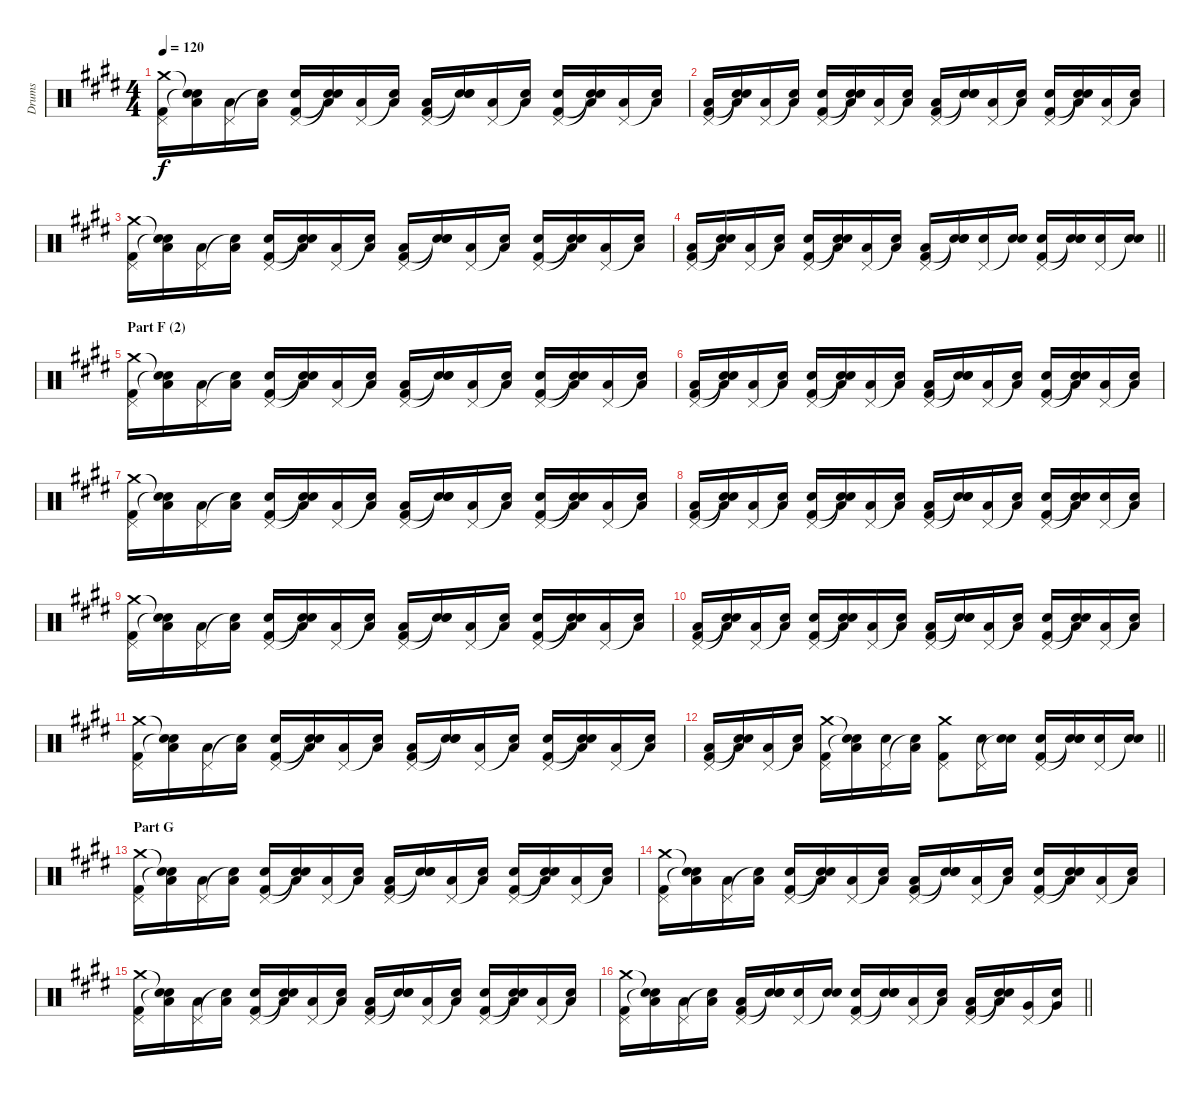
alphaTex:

\track ("Drums" "Drums") {instrument percussion}
\staff {score}
\articulation defaults
\ts (4 4)
\tempo 120
\clef neutral
\ks e
("Crash medium (hit)" "Pedal Hi-Hat (hit)" "Kick (hit) 2").16{dy f} ("Snare (hit)"{t} "Low Floor Tom (hit)" "Snare (hit)"{t}).16 ("Pedal Hi-Hat (hit)" "Low Floor Tom (hit)").16 ("Snare (hit)"{t} "Low Floor Tom (hit)").16 ("Pedal Hi-Hat (hit)" "Electric Snare (hit)" "Kick (hit) 2").16 ("Snare (hit)"{t} "Low Floor Tom (hit)" "Snare (hit)"{t}).16 ("Pedal Hi-Hat (hit)" "Low Floor Tom (hit)").16 ("Snare (hit)"{t} "Low Floor Tom (hit)").16 ("Pedal Hi-Hat (hit)" "Low Floor Tom (hit)" "Kick (hit) 2").16 ("Snare (hit)"{t} "Electric Snare (hit)" "Snare (hit)"{t}).16 ("Pedal Hi-Hat (hit)" "Low Floor Tom (hit)").16 ("Snare (hit)"{t} "Low Floor Tom (hit)").16 ("Pedal Hi-Hat (hit)" "Electric Snare (hit)" "Kick (hit) 2").16 ("Snare (hit)"{t} "Low Floor Tom (hit)" "Snare (hit)"{t}).16 ("Pedal Hi-Hat (hit)" "Low Floor Tom (hit)").16 ("Snare (hit)"{t} "Low Floor Tom (hit)").16 |
("Pedal Hi-Hat (hit)" "Low Floor Tom (hit)" "Kick (hit) 2").16 ("Snare (hit)"{t} "Low Floor Tom (hit)" "Snare (hit)"{t}).16 ("Pedal Hi-Hat (hit)" "Low Floor Tom (hit)").16 ("Snare (hit)"{t} "Low Floor Tom (hit)").16 ("Pedal Hi-Hat (hit)" "Electric Snare (hit)" "Kick (hit) 2").16 ("Snare (hit)"{t} "Low Floor Tom (hit)" "Snare (hit)"{t}).16 ("Pedal Hi-Hat (hit)" "Low Floor Tom (hit)").16 ("Snare (hit)"{t} "Low Floor Tom (hit)").16 ("Pedal Hi-Hat (hit)" "Low Floor Tom (hit)" "Kick (hit) 2").16 ("Snare (hit)"{t} "Electric Snare (hit)" "Snare (hit)"{t}).16 ("Pedal Hi-Hat (hit)" "Low Floor Tom (hit)").16 ("Snare (hit)"{t} "Low Floor Tom (hit)").16 ("Pedal Hi-Hat (hit)" "Electric Snare (hit)" "Kick (hit) 2").16 ("Snare (hit)"{t} "Low Floor Tom (hit)" "Snare (hit)"{t}).16 ("Pedal Hi-Hat (hit)" "Low Floor Tom (hit)").16 ("Snare (hit)"{t} "Low Floor Tom (hit)").16 |
("Crash medium (hit)" "Pedal Hi-Hat (hit)" "Kick (hit) 2").16 ("Snare (hit)"{t} "Low Floor Tom (hit)" "Snare (hit)"{t}).16 ("Pedal Hi-Hat (hit)" "Low Floor Tom (hit)").16 ("Snare (hit)"{t} "Low Floor Tom (hit)").16 ("Pedal Hi-Hat (hit)" "Electric Snare (hit)" "Kick (hit) 2").16 ("Snare (hit)"{t} "Low Floor Tom (hit)" "Snare (hit)"{t}).16 ("Pedal Hi-Hat (hit)" "Low Floor Tom (hit)").16 ("Snare (hit)"{t} "Low Floor Tom (hit)").16 ("Pedal Hi-Hat (hit)" "Low Floor Tom (hit)" "Kick (hit) 2").16 ("Snare (hit)"{t} "Electric Snare (hit)" "Snare (hit)"{t}).16 ("Pedal Hi-Hat (hit)" "Low Floor Tom (hit)").16 ("Snare (hit)"{t} "Low Floor Tom (hit)").16 ("Pedal Hi-Hat (hit)" "Electric Snare (hit)" "Kick (hit) 2").16 ("Snare (hit)"{t} "Low Floor Tom (hit)" "Snare (hit)"{t}).16 ("Pedal Hi-Hat (hit)" "Low Floor Tom (hit)").16 ("Snare (hit)"{t} "Low Floor Tom (hit)").16 |
\barLineRight lightlight
("Pedal Hi-Hat (hit)" "Low Floor Tom (hit)" "Kick (hit) 2").16 ("Snare (hit)"{t} "Low Floor Tom (hit)" "Snare (hit)"{t}).16 ("Pedal Hi-Hat (hit)" "Low Floor Tom (hit)").16 ("Snare (hit)"{t} "Low Floor Tom (hit)").16 ("Pedal Hi-Hat (hit)" "Electric Snare (hit)" "Kick (hit) 2").16 ("Snare (hit)"{t} "Low Floor Tom (hit)" "Snare (hit)"{t}).16 ("Pedal Hi-Hat (hit)" "Low Floor Tom (hit)").16 ("Snare (hit)"{t} "Low Floor Tom (hit)").16 ("Pedal Hi-Hat (hit)" "Low Floor Tom (hit)" "Kick (hit) 2").16 ("Snare (hit)"{t} "Electric Snare (hit)" "Snare (hit)"{t}).16 ("Pedal Hi-Hat (hit)" "Electric Snare (hit)").16 ("Snare (hit)"{t} "Electric Snare (hit)").16 ("Pedal Hi-Hat (hit)" "Electric Snare (hit)" "Kick (hit) 2").16 ("Snare (hit)"{t} "Electric Snare (hit)" "Snare (hit)"{t}).16 ("Pedal Hi-Hat (hit)" "Electric Snare (hit)").16 ("Snare (hit)"{t} "Electric Snare (hit)").16 |
\section ("" "Part F (2)")
("Crash medium (hit)" "Pedal Hi-Hat (hit)" "Kick (hit) 2").16 ("Snare (hit)"{t} "Low Floor Tom (hit)" "Snare (hit)"{t}).16 ("Pedal Hi-Hat (hit)" "Low Floor Tom (hit)").16 ("Snare (hit)"{t} "Low Floor Tom (hit)").16 ("Pedal Hi-Hat (hit)" "Electric Snare (hit)" "Kick (hit) 2").16 ("Snare (hit)"{t} "Low Floor Tom (hit)" "Snare (hit)"{t}).16 ("Pedal Hi-Hat (hit)" "Low Floor Tom (hit)").16 ("Snare (hit)"{t} "Low Floor Tom (hit)").16 ("Pedal Hi-Hat (hit)" "Low Floor Tom (hit)" "Kick (hit) 2").16 ("Snare (hit)"{t} "Electric Snare (hit)" "Snare (hit)"{t}).16 ("Pedal Hi-Hat (hit)" "Low Floor Tom (hit)").16 ("Snare (hit)"{t} "Low Floor Tom (hit)").16 ("Pedal Hi-Hat (hit)" "Electric Snare (hit)" "Kick (hit) 2").16 ("Snare (hit)"{t} "Low Floor Tom (hit)" "Snare (hit)"{t}).16 ("Pedal Hi-Hat (hit)" "Low Floor Tom (hit)").16 ("Snare (hit)"{t} "Low Floor Tom (hit)").16 |
("Pedal Hi-Hat (hit)" "Low Floor Tom (hit)" "Kick (hit) 2").16 ("Snare (hit)"{t} "Low Floor Tom (hit)" "Snare (hit)"{t}).16 ("Pedal Hi-Hat (hit)" "Low Floor Tom (hit)").16 ("Snare (hit)"{t} "Low Floor Tom (hit)").16 ("Pedal Hi-Hat (hit)" "Electric Snare (hit)" "Kick (hit) 2").16 ("Snare (hit)"{t} "Low Floor Tom (hit)" "Snare (hit)"{t}).16 ("Pedal Hi-Hat (hit)" "Low Floor Tom (hit)").16 ("Snare (hit)"{t} "Low Floor Tom (hit)").16 ("Pedal Hi-Hat (hit)" "Low Floor Tom (hit)" "Kick (hit) 2").16 ("Snare (hit)"{t} "Electric Snare (hit)" "Snare (hit)"{t}).16 ("Pedal Hi-Hat (hit)" "Low Floor Tom (hit)").16 ("Snare (hit)"{t} "Low Floor Tom (hit)").16 ("Pedal Hi-Hat (hit)" "Electric Snare (hit)" "Kick (hit) 2").16 ("Snare (hit)"{t} "Low Floor Tom (hit)" "Snare (hit)"{t}).16 ("Pedal Hi-Hat (hit)" "Low Floor Tom (hit)").16 ("Snare (hit)"{t} "Low Floor Tom (hit)").16 |
("Crash medium (hit)" "Pedal Hi-Hat (hit)" "Kick (hit) 2").16 ("Snare (hit)"{t} "Low Floor Tom (hit)" "Snare (hit)"{t}).16 ("Pedal Hi-Hat (hit)" "Low Floor Tom (hit)").16 ("Snare (hit)"{t} "Low Floor Tom (hit)").16 ("Pedal Hi-Hat (hit)" "Electric Snare (hit)" "Kick (hit) 2").16 ("Snare (hit)"{t} "Low Floor Tom (hit)" "Snare (hit)"{t}).16 ("Pedal Hi-Hat (hit)" "Low Floor Tom (hit)").16 ("Snare (hit)"{t} "Low Floor Tom (hit)").16 ("Pedal Hi-Hat (hit)" "Low Floor Tom (hit)" "Kick (hit) 2").16 ("Snare (hit)"{t} "Electric Snare (hit)" "Snare (hit)"{t}).16 ("Pedal Hi-Hat (hit)" "Low Floor Tom (hit)").16 ("Snare (hit)"{t} "Low Floor Tom (hit)").16 ("Pedal Hi-Hat (hit)" "Electric Snare (hit)" "Kick (hit) 2").16 ("Snare (hit)"{t} "Low Floor Tom (hit)" "Snare (hit)"{t}).16 ("Pedal Hi-Hat (hit)" "Low Floor Tom (hit)").16 ("Snare (hit)"{t} "Low Floor Tom (hit)").16 |
("Pedal Hi-Hat (hit)" "Low Floor Tom (hit)" "Kick (hit) 2").16 ("Snare (hit)"{t} "Low Floor Tom (hit)" "Snare (hit)"{t}).16 ("Pedal Hi-Hat (hit)" "Low Floor Tom (hit)").16 ("Snare (hit)"{t} "Low Floor Tom (hit)").16 ("Pedal Hi-Hat (hit)" "Electric Snare (hit)" "Kick (hit) 2").16 ("Snare (hit)"{t} "Low Floor Tom (hit)" "Snare (hit)"{t}).16 ("Pedal Hi-Hat (hit)" "Low Floor Tom (hit)").16 ("Snare (hit)"{t} "Low Floor Tom (hit)").16 ("Pedal Hi-Hat (hit)" "Low Floor Tom (hit)" "Kick (hit) 2").16 ("Snare (hit)"{t} "Electric Snare (hit)" "Snare (hit)"{t}).16 ("Pedal Hi-Hat (hit)" "Low Floor Tom (hit)").16 ("Snare (hit)"{t} "Low Floor Tom (hit)").16 ("Pedal Hi-Hat (hit)" "Electric Snare (hit)" "Kick (hit) 2").16 ("Snare (hit)"{t} "Low Floor Tom (hit)" "Snare (hit)"{t}).16 ("Pedal Hi-Hat (hit)" "Electric Snare (hit)").16 ("Snare (hit)"{t} "Low Floor Tom (hit)").16 |
("Crash medium (hit)" "Pedal Hi-Hat (hit)" "Kick (hit) 2").16 ("Snare (hit)"{t} "Low Floor Tom (hit)" "Snare (hit)"{t}).16 ("Pedal Hi-Hat (hit)" "Low Floor Tom (hit)").16 ("Snare (hit)"{t} "Low Floor Tom (hit)").16 ("Pedal Hi-Hat (hit)" "Electric Snare (hit)" "Kick (hit) 2").16 ("Snare (hit)"{t} "Low Floor Tom (hit)" "Snare (hit)"{t}).16 ("Pedal Hi-Hat (hit)" "Low Floor Tom (hit)").16 ("Snare (hit)"{t} "Low Floor Tom (hit)").16 ("Pedal Hi-Hat (hit)" "Low Floor Tom (hit)" "Kick (hit) 2").16 ("Snare (hit)"{t} "Electric Snare (hit)" "Snare (hit)"{t}).16 ("Pedal Hi-Hat (hit)" "Low Floor Tom (hit)").16 ("Snare (hit)"{t} "Low Floor Tom (hit)").16 ("Pedal Hi-Hat (hit)" "Electric Snare (hit)" "Kick (hit) 2").16 ("Snare (hit)"{t} "Low Floor Tom (hit)" "Snare (hit)"{t}).16 ("Pedal Hi-Hat (hit)" "Low Floor Tom (hit)").16 ("Snare (hit)"{t} "Low Floor Tom (hit)").16 |
("Pedal Hi-Hat (hit)" "Low Floor Tom (hit)" "Kick (hit) 2").16 ("Snare (hit)"{t} "Low Floor Tom (hit)" "Snare (hit)"{t}).16 ("Pedal Hi-Hat (hit)" "Low Floor Tom (hit)").16 ("Snare (hit)"{t} "Low Floor Tom (hit)").16 ("Pedal Hi-Hat (hit)" "Electric Snare (hit)" "Kick (hit) 2").16 ("Snare (hit)"{t} "Low Floor Tom (hit)" "Snare (hit)"{t}).16 ("Pedal Hi-Hat (hit)" "Low Floor Tom (hit)").16 ("Snare (hit)"{t} "Low Floor Tom (hit)").16 ("Pedal Hi-Hat (hit)" "Low Floor Tom (hit)" "Kick (hit) 2").16 ("Snare (hit)"{t} "Electric Snare (hit)" "Snare (hit)"{t}).16 ("Pedal Hi-Hat (hit)" "Low Floor Tom (hit)").16 ("Snare (hit)"{t} "Low Floor Tom (hit)").16 ("Pedal Hi-Hat (hit)" "Electric Snare (hit)" "Kick (hit) 2").16 ("Snare (hit)"{t} "Low Floor Tom (hit)" "Snare (hit)"{t}).16 ("Pedal Hi-Hat (hit)" "Low Floor Tom (hit)").16 ("Snare (hit)"{t} "Low Floor Tom (hit)").16 |
("Crash medium (hit)" "Pedal Hi-Hat (hit)" "Kick (hit) 2").16 ("Snare (hit)"{t} "Low Floor Tom (hit)" "Snare (hit)"{t}).16 ("Pedal Hi-Hat (hit)" "Low Floor Tom (hit)").16 ("Snare (hit)"{t} "Low Floor Tom (hit)").16 ("Pedal Hi-Hat (hit)" "Electric Snare (hit)" "Kick (hit) 2").16 ("Snare (hit)"{t} "Low Floor Tom (hit)" "Snare (hit)"{t}).16 ("Pedal Hi-Hat (hit)" "Low Floor Tom (hit)").16 ("Snare (hit)"{t} "Low Floor Tom (hit)").16 ("Pedal Hi-Hat (hit)" "Low Floor Tom (hit)" "Kick (hit) 2").16 ("Snare (hit)"{t} "Electric Snare (hit)" "Snare (hit)"{t}).16 ("Pedal Hi-Hat (hit)" "Low Floor Tom (hit)").16 ("Snare (hit)"{t} "Low Floor Tom (hit)").16 ("Pedal Hi-Hat (hit)" "Electric Snare (hit)" "Kick (hit) 2").16 ("Snare (hit)"{t} "Low Floor Tom (hit)" "Snare (hit)"{t}).16 ("Pedal Hi-Hat (hit)" "Low Floor Tom (hit)").16 ("Snare (hit)"{t} "Low Floor Tom (hit)").16 |
\barLineRight lightlight
("Pedal Hi-Hat (hit)" "Low Floor Tom (hit)" "Kick (hit) 2").16 ("Snare (hit)"{t} "Low Floor Tom (hit)" "Snare (hit)"{t}).16 ("Pedal Hi-Hat (hit)" "Low Floor Tom (hit)").16 ("Snare (hit)"{t} "Low Floor Tom (hit)").16 ("Crash medium (hit)" "Pedal Hi-Hat (hit)" "Kick (hit) 2").16 ("Snare (hit)"{t} "Low Floor Tom (hit)" "Snare (hit)"{t}).16 ("Pedal Hi-Hat (hit)" "Electric Snare (hit)").16 ("Snare (hit)"{t} "Low Floor Tom (hit)").16 ("Crash medium (hit)" "Pedal Hi-Hat (hit)" "Kick (hit) 2").8 ("Pedal Hi-Hat (hit)" "Electric Snare (hit)").16 ("Snare (hit)"{t} "Electric Snare (hit)").16 ("Pedal Hi-Hat (hit)" "Electric Snare (hit)" "Kick (hit) 2").16 ("Snare (hit)"{t} "Electric Snare (hit)" "Snare (hit)"{t}).16 ("Pedal Hi-Hat (hit)" "Electric Snare (hit)").16 ("Snare (hit)"{t} "Electric Snare (hit)").16 |
\section ("" "Part G")
("Crash medium (hit)" "Pedal Hi-Hat (hit)" "Kick (hit) 2").16 ("Snare (hit)"{t} "Low Floor Tom (hit)" "Snare (hit)"{t}).16 ("Pedal Hi-Hat (hit)" "Low Floor Tom (hit)").16 ("Snare (hit)"{t} "Low Floor Tom (hit)").16 ("Pedal Hi-Hat (hit)" "Electric Snare (hit)" "Kick (hit) 2").16 ("Snare (hit)"{t} "Low Floor Tom (hit)" "Snare (hit)"{t}).16 ("Pedal Hi-Hat (hit)" "Low Floor Tom (hit)").16 ("Snare (hit)"{t} "Low Floor Tom (hit)").16 ("Pedal Hi-Hat (hit)" "Low Floor Tom (hit)" "Kick (hit) 2").16 ("Snare (hit)"{t} "Electric Snare (hit)" "Snare (hit)"{t}).16 ("Pedal Hi-Hat (hit)" "Low Floor Tom (hit)").16 ("Snare (hit)"{t} "Low Floor Tom (hit)").16 ("Pedal Hi-Hat (hit)" "Electric Snare (hit)" "Kick (hit) 2").16 ("Snare (hit)"{t} "Low Floor Tom (hit)" "Snare (hit)"{t}).16 ("Pedal Hi-Hat (hit)" "Low Floor Tom (hit)").16 ("Snare (hit)"{t} "Low Floor Tom (hit)").16 |
("Crash medium (hit)" "Pedal Hi-Hat (hit)" "Kick (hit) 2").16 ("Snare (hit)"{t} "Low Floor Tom (hit)" "Snare (hit)"{t}).16 ("Pedal Hi-Hat (hit)" "Low Floor Tom (hit)").16 ("Snare (hit)"{t} "Low Floor Tom (hit)").16 ("Pedal Hi-Hat (hit)" "Electric Snare (hit)" "Kick (hit) 2").16 ("Snare (hit)"{t} "Low Floor Tom (hit)" "Snare (hit)"{t}).16 ("Pedal Hi-Hat (hit)" "Low Floor Tom (hit)").16 ("Snare (hit)"{t} "Low Floor Tom (hit)").16 ("Pedal Hi-Hat (hit)" "Low Floor Tom (hit)" "Kick (hit) 2").16 ("Snare (hit)"{t} "Electric Snare (hit)" "Snare (hit)"{t}).16 ("Pedal Hi-Hat (hit)" "Low Floor Tom (hit)").16 ("Snare (hit)"{t} "Low Floor Tom (hit)").16 ("Pedal Hi-Hat (hit)" "Electric Snare (hit)" "Kick (hit) 2").16 ("Snare (hit)"{t} "Low Floor Tom (hit)" "Snare (hit)"{t}).16 ("Pedal Hi-Hat (hit)" "Low Floor Tom (hit)").16 ("Snare (hit)"{t} "Low Floor Tom (hit)").16 |
("Crash medium (hit)" "Pedal Hi-Hat (hit)" "Kick (hit) 2").16 ("Snare (hit)"{t} "Low Floor Tom (hit)" "Snare (hit)"{t}).16 ("Pedal Hi-Hat (hit)" "Low Floor Tom (hit)").16 ("Snare (hit)"{t} "Low Floor Tom (hit)").16 ("Pedal Hi-Hat (hit)" "Electric Snare (hit)" "Kick (hit) 2").16 ("Snare (hit)"{t} "Low Floor Tom (hit)" "Snare (hit)"{t}).16 ("Pedal Hi-Hat (hit)" "Low Floor Tom (hit)").16 ("Snare (hit)"{t} "Low Floor Tom (hit)").16 ("Pedal Hi-Hat (hit)" "Low Floor Tom (hit)" "Kick (hit) 2").16 ("Snare (hit)"{t} "Electric Snare (hit)" "Snare (hit)"{t}).16 ("Pedal Hi-Hat (hit)" "Low Floor Tom (hit)").16 ("Snare (hit)"{t} "Low Floor Tom (hit)").16 ("Pedal Hi-Hat (hit)" "Electric Snare (hit)" "Kick (hit) 2").16 ("Snare (hit)"{t} "Low Floor Tom (hit)" "Snare (hit)"{t}).16 ("Pedal Hi-Hat (hit)" "Low Floor Tom (hit)").16 ("Snare (hit)"{t} "Low Floor Tom (hit)").16 |
\barLineRight lightlight
("Crash medium (hit)" "Pedal Hi-Hat (hit)" "Kick (hit) 2").16 ("Snare (hit)"{t} "Low Floor Tom (hit)" "Snare (hit)"{t}).16 ("Pedal Hi-Hat (hit)" "Low Floor Tom (hit)").16 ("Snare (hit)"{t} "Low Floor Tom (hit)").16 ("Pedal Hi-Hat (hit)" "Low Floor Tom (hit)" "Kick (hit) 2").16 ("Snare (hit)"{t} "Electric Snare (hit)" "Snare (hit)"{t}).16 ("Pedal Hi-Hat (hit)" "Electric Snare (hit)").16 ("Snare (hit)"{t} "Electric Snare (hit)").16 ("Pedal Hi-Hat (hit)" "Electric Snare (hit)" "Kick (hit) 2").16 ("Snare (hit)"{t} "Electric Snare (hit)" "Snare (hit)"{t}).16 ("Pedal Hi-Hat (hit)" "Low Tom (hit)").16 ("Snare (hit)"{t} "Low Tom (hit)").16 ("Pedal Hi-Hat (hit)" "Low Tom (hit)" "Kick (hit) 2").16 ("Snare (hit)"{t} "Low Tom (hit)" "Snare (hit)"{t}).16 ("Pedal Hi-Hat (hit)" "Very Low Tom (hit)").16 ("Snare (hit)"{t} "Very Low Tom (hit)").16
